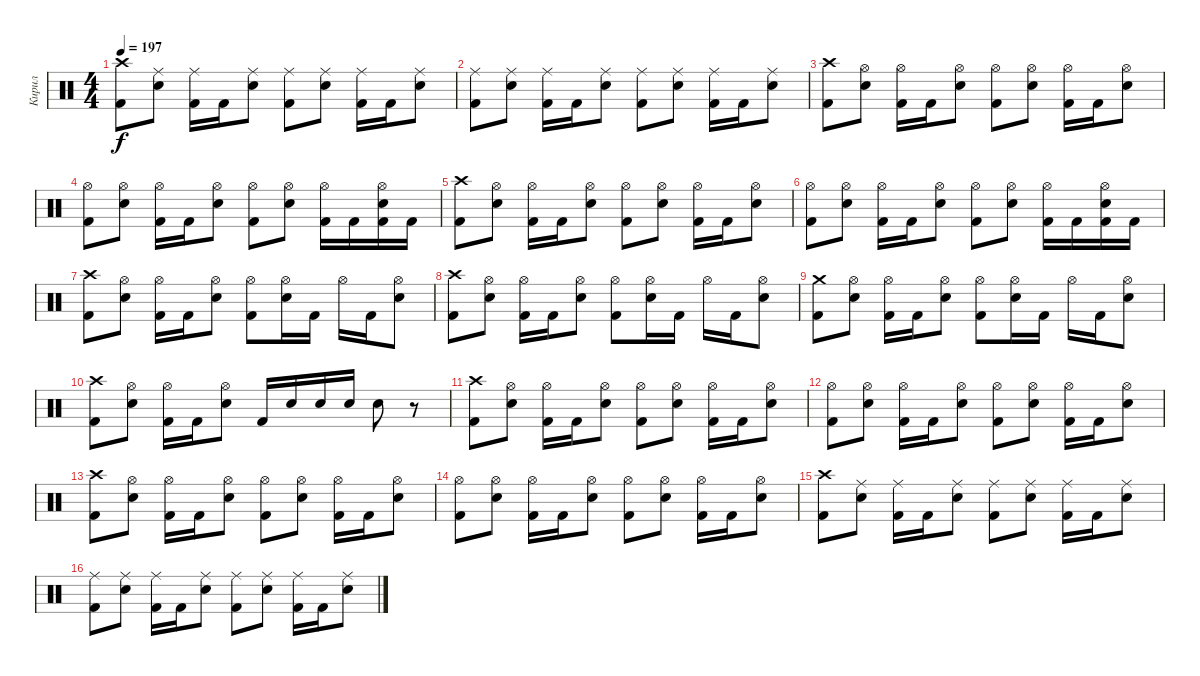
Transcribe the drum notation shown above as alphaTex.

\track ("Кирил" "Кирил") {instrument percussion}
\staff {score}
\articulation defaults
\ts (4 4)
\tempo 197
\clef neutral
\ks c
("Crash high (hit)" "Kick (hit) 2").8{dy f} ("Ride (middle)" "Electric Snare (hit)").8 ("Ride (middle)" "Kick (hit) 2").16 "Kick (hit) 2".16 ("Ride (middle)" "Electric Snare (hit)").8 ("Ride (middle)" "Kick (hit) 2").8 ("Ride (middle)" "Electric Snare (hit)").8 ("Ride (middle)" "Kick (hit) 2").16 "Kick (hit) 2".16 ("Ride (middle)" "Electric Snare (hit)").8 |
("Ride (middle)" "Kick (hit) 2").8 ("Ride (middle)" "Electric Snare (hit)").8 ("Ride (middle)" "Kick (hit) 2").16 "Kick (hit) 2".16 ("Ride (middle)" "Electric Snare (hit)").8 ("Ride (middle)" "Kick (hit) 2").8 ("Ride (middle)" "Electric Snare (hit)").8 ("Ride (middle)" "Kick (hit) 2").16 "Kick (hit) 2".16 ("Ride (middle)" "Electric Snare (hit)").8 |
("Crash high (hit)" "Kick (hit) 2").8 ("Hi-Hat (open)" "Electric Snare (hit)").8 ("Hi-Hat (open)" "Kick (hit) 2").16 "Kick (hit) 2".16 ("Hi-Hat (open)" "Electric Snare (hit)").8 ("Hi-Hat (open)" "Kick (hit) 2").8 ("Hi-Hat (open)" "Electric Snare (hit)").8 ("Hi-Hat (open)" "Kick (hit) 2").16 "Kick (hit) 2".16 ("Hi-Hat (open)" "Electric Snare (hit)").8 |
("Hi-Hat (open)" "Kick (hit) 2").8 ("Hi-Hat (open)" "Electric Snare (hit)").8 ("Hi-Hat (open)" "Kick (hit) 2").16 "Kick (hit) 2".16 ("Hi-Hat (open)" "Electric Snare (hit)").8 ("Hi-Hat (open)" "Kick (hit) 2").8 ("Hi-Hat (open)" "Electric Snare (hit)").8 ("Hi-Hat (open)" "Kick (hit) 2").16 "Kick (hit) 2".16 ("Hi-Hat (open)" "Electric Snare (hit)" "Kick (hit) 2").16 "Kick (hit) 2".16 |
("Crash high (hit)" "Kick (hit) 2").8 ("Hi-Hat (open)" "Electric Snare (hit)").8 ("Hi-Hat (open)" "Kick (hit) 2").16 "Kick (hit) 2".16 ("Hi-Hat (open)" "Electric Snare (hit)").8 ("Hi-Hat (open)" "Kick (hit) 2").8 ("Hi-Hat (open)" "Electric Snare (hit)").8 ("Hi-Hat (open)" "Kick (hit) 2").16 "Kick (hit) 2".16 ("Hi-Hat (open)" "Electric Snare (hit)").8 |
("Hi-Hat (open)" "Kick (hit) 2").8 ("Hi-Hat (open)" "Electric Snare (hit)").8 ("Hi-Hat (open)" "Kick (hit) 2").16 "Kick (hit) 2".16 ("Hi-Hat (open)" "Electric Snare (hit)").8 ("Hi-Hat (open)" "Kick (hit) 2").8 ("Hi-Hat (open)" "Electric Snare (hit)").8 ("Hi-Hat (open)" "Kick (hit) 2").16 "Kick (hit) 2".16 ("Hi-Hat (open)" "Electric Snare (hit)" "Kick (hit) 2").16 "Kick (hit) 2".16 |
("Crash high (hit)" "Kick (hit) 2").8 ("Hi-Hat (open)" "Electric Snare (hit)").8 ("Hi-Hat (open)" "Kick (hit) 2").16 "Kick (hit) 2".16 ("Hi-Hat (open)" "Electric Snare (hit)").8 ("Hi-Hat (open)" "Kick (hit) 2").8 ("Hi-Hat (open)" "Electric Snare (hit)").16 "Kick (hit) 2".16 "Hi-Hat (open)".16 "Kick (hit) 2".16 ("Hi-Hat (open)" "Electric Snare (hit)").8 |
("Crash high (hit)" "Kick (hit) 2").8 ("Hi-Hat (open)" "Electric Snare (hit)").8 ("Hi-Hat (open)" "Kick (hit) 2").16 "Kick (hit) 2".16 ("Hi-Hat (open)" "Electric Snare (hit)").8 ("Hi-Hat (open)" "Kick (hit) 2").8 ("Hi-Hat (open)" "Electric Snare (hit)").16 "Kick (hit) 2".16 "Hi-Hat (open)".16 "Kick (hit) 2".16 ("Hi-Hat (open)" "Electric Snare (hit)").8 |
("Crash medium (hit)" "Kick (hit) 2").8 ("Hi-Hat (open)" "Electric Snare (hit)").8 ("Hi-Hat (open)" "Kick (hit) 2").16 "Kick (hit) 2".16 ("Hi-Hat (open)" "Electric Snare (hit)").8 ("Hi-Hat (open)" "Kick (hit) 2").8 ("Hi-Hat (open)" "Electric Snare (hit)").16 "Kick (hit) 2".16 "Hi-Hat (open)".16 "Kick (hit) 2".16 ("Hi-Hat (open)" "Electric Snare (hit)").8 |
("Crash high (hit)" "Kick (hit) 2").8 ("Hi-Hat (open)" "Electric Snare (hit)").8 ("Hi-Hat (open)" "Kick (hit) 2").16 "Kick (hit) 2".16 ("Hi-Hat (open)" "Electric Snare (hit)").8 "Kick (hit) 2".16 "Electric Snare (hit)".16 "Electric Snare (hit)".16 "Electric Snare (hit)".16 "Electric Snare (hit)".8 r.8 |
("Crash high (hit)" "Kick (hit) 2").8 ("Hi-Hat (open)" "Electric Snare (hit)").8 ("Hi-Hat (open)" "Kick (hit) 2").16 "Kick (hit) 2".16 ("Hi-Hat (open)" "Electric Snare (hit)").8 ("Hi-Hat (open)" "Kick (hit) 2").8 ("Hi-Hat (open)" "Electric Snare (hit)").8 ("Hi-Hat (open)" "Kick (hit) 2").16 "Kick (hit) 2".16 ("Hi-Hat (open)" "Electric Snare (hit)").8 |
("Hi-Hat (open)" "Kick (hit) 2").8 ("Hi-Hat (open)" "Electric Snare (hit)").8 ("Hi-Hat (open)" "Kick (hit) 2").16 "Kick (hit) 2".16 ("Hi-Hat (open)" "Electric Snare (hit)").8 ("Hi-Hat (open)" "Kick (hit) 2").8 ("Hi-Hat (open)" "Electric Snare (hit)").8 ("Hi-Hat (open)" "Kick (hit) 2").16 "Kick (hit) 2".16 ("Hi-Hat (open)" "Electric Snare (hit)").8 |
("Crash high (hit)" "Kick (hit) 2").8 ("Hi-Hat (open)" "Electric Snare (hit)").8 ("Hi-Hat (open)" "Kick (hit) 2").16 "Kick (hit) 2".16 ("Hi-Hat (open)" "Electric Snare (hit)").8 ("Hi-Hat (open)" "Kick (hit) 2").8 ("Hi-Hat (open)" "Electric Snare (hit)").8 ("Hi-Hat (open)" "Kick (hit) 2").16 "Kick (hit) 2".16 ("Hi-Hat (open)" "Electric Snare (hit)").8 |
("Hi-Hat (open)" "Kick (hit) 2").8 ("Hi-Hat (open)" "Electric Snare (hit)").8 ("Hi-Hat (open)" "Kick (hit) 2").16 "Kick (hit) 2".16 ("Hi-Hat (open)" "Electric Snare (hit)").8 ("Hi-Hat (open)" "Kick (hit) 2").8 ("Hi-Hat (open)" "Electric Snare (hit)").8 ("Hi-Hat (open)" "Kick (hit) 2").16 "Kick (hit) 2".16 ("Hi-Hat (open)" "Electric Snare (hit)").8 |
("Crash high (hit)" "Kick (hit) 2").8 ("Ride (middle)" "Electric Snare (hit)").8 ("Ride (middle)" "Kick (hit) 2").16 "Kick (hit) 2".16 ("Ride (middle)" "Electric Snare (hit)").8 ("Ride (middle)" "Kick (hit) 2").8 ("Ride (middle)" "Electric Snare (hit)").8 ("Ride (middle)" "Kick (hit) 2").16 "Kick (hit) 2".16 ("Ride (middle)" "Electric Snare (hit)").8 |
("Ride (middle)" "Kick (hit) 2").8 ("Ride (middle)" "Electric Snare (hit)").8 ("Ride (middle)" "Kick (hit) 2").16 "Kick (hit) 2".16 ("Ride (middle)" "Electric Snare (hit)").8 ("Ride (middle)" "Kick (hit) 2").8 ("Ride (middle)" "Electric Snare (hit)").8 ("Ride (middle)" "Kick (hit) 2").16 "Kick (hit) 2".16 ("Ride (middle)" "Electric Snare (hit)").8
